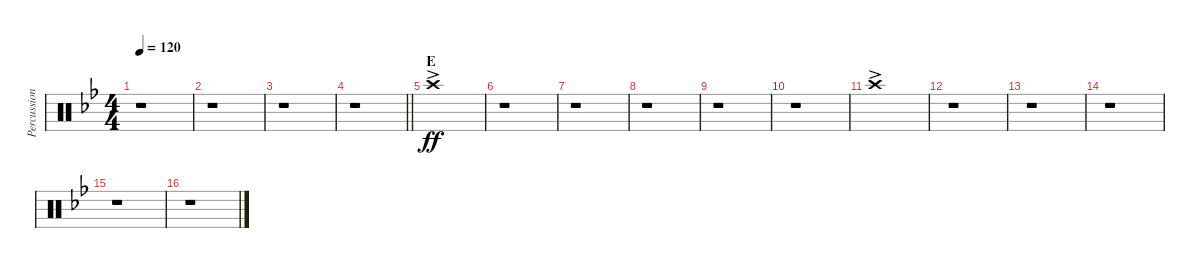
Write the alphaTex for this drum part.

\track ("Percussion" "Percussion") {instrument percussion}
\staff {score}
\articulation defaults
\ts (4 4)
\tempo 120
\clef neutral
\ks bb
r.1{dy ff} |
r.1 |
r.1 |
\barLineRight lightlight
r.1 |
\section ("" "E")
"Crash high (hit)"{ac}.1 |
r.1 |
r.1 |
r.1 |
r.1 |
r.1 |
"Crash high (hit)"{ac}.1 |
r.1 |
r.1 |
r.1 |
r.1 |
r.1
